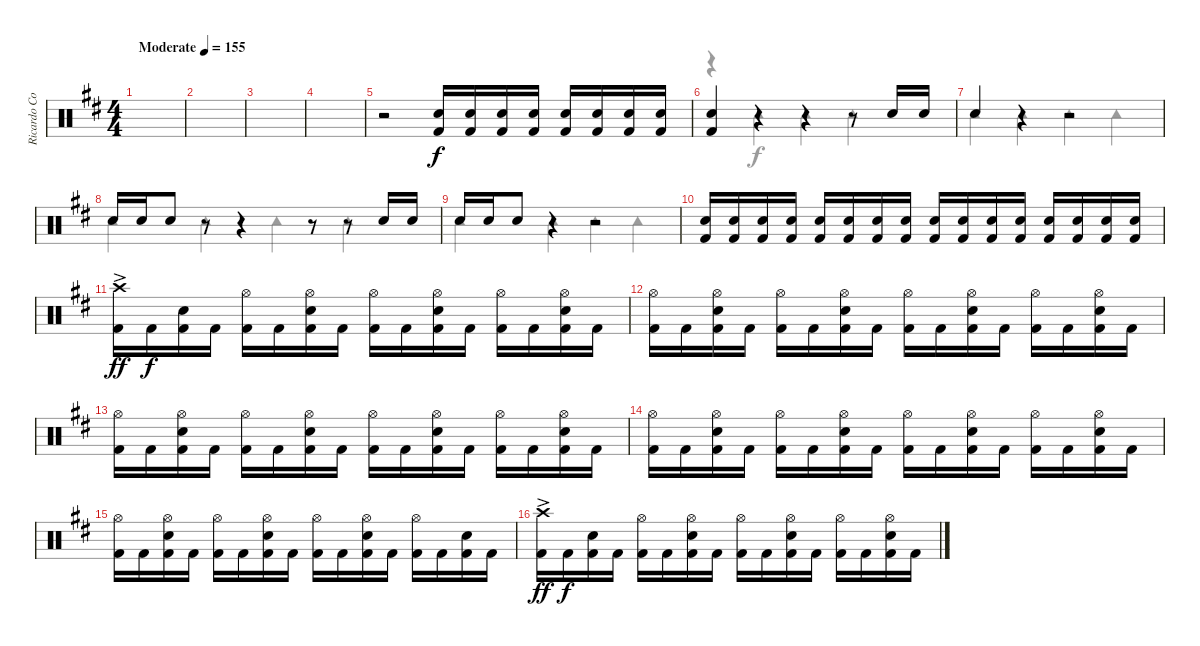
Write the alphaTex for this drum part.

\track ("Ricardo Confessori" "Ricardo Co") {instrument percussion}
\staff {score}
\articulation defaults
\voice
\ts (4 4)
\tempo (155 "Moderate")
\clef neutral
\ks d
|
|
|
|
r.2 ("Electric Snare (hit)" "Kick (hit) 2").16 ("Electric Snare (hit)" "Kick (hit) 2").16 ("Electric Snare (hit)" "Kick (hit) 2").16 ("Electric Snare (hit)" "Kick (hit) 2").16 ("Electric Snare (hit)" "Kick (hit) 2").16 ("Electric Snare (hit)" "Kick (hit) 2").16 ("Electric Snare (hit)" "Kick (hit) 2").16 ("Electric Snare (hit)" "Kick (hit) 2").16 |
("Electric Snare (hit)" "Kick (hit) 2").4 r.4 r.4 r.8 "Electric Snare (hit)".16 "Electric Snare (hit)".16 |
"Electric Snare (hit)".4 r.4 r.2 |
"Electric Snare (hit)".16 "Electric Snare (hit)".16 "Electric Snare (hit)".8 r.8 r.4 r.8 r.8 "Electric Snare (hit)".16 "Electric Snare (hit)".16 |
"Electric Snare (hit)".16 "Electric Snare (hit)".16 "Electric Snare (hit)".8 r.4 r.2 |
("Electric Snare (hit)" "Kick (hit) 2").16 ("Electric Snare (hit)" "Kick (hit) 2").16 ("Electric Snare (hit)" "Kick (hit) 2").16 ("Electric Snare (hit)" "Kick (hit) 2").16 ("Electric Snare (hit)" "Kick (hit) 2").16 ("Electric Snare (hit)" "Kick (hit) 2").16 ("Electric Snare (hit)" "Kick (hit) 2").16 ("Electric Snare (hit)" "Kick (hit) 2").16 ("Electric Snare (hit)" "Kick (hit) 2").16 ("Electric Snare (hit)" "Kick (hit) 2").16 ("Electric Snare (hit)" "Kick (hit) 2").16 ("Electric Snare (hit)" "Kick (hit) 2").16 ("Electric Snare (hit)" "Kick (hit) 2").16 ("Electric Snare (hit)" "Kick (hit) 2").16 ("Electric Snare (hit)" "Kick (hit) 2").16 ("Electric Snare (hit)" "Kick (hit) 2").16 |
("Crash high (hit)"{ac} "Kick (hit) 2"{ac}).16{dy ff} "Kick (hit) 2".16{dy f} ("Electric Snare (hit)" "Kick (hit) 2").16 "Kick (hit) 2".16 ("Kick (hit) 2" "Hi-Hat (open)").16 "Kick (hit) 2".16 ("Kick (hit) 2" "Hi-Hat (open)" "Electric Snare (hit)").16 "Kick (hit) 2".16 ("Kick (hit) 2" "Hi-Hat (open)").16 "Kick (hit) 2".16 ("Kick (hit) 2" "Hi-Hat (open)" "Electric Snare (hit)").16 "Kick (hit) 2".16 ("Kick (hit) 2" "Hi-Hat (open)").16 "Kick (hit) 2".16 ("Kick (hit) 2" "Hi-Hat (open)" "Electric Snare (hit)").16 "Kick (hit) 2".16 |
("Hi-Hat (open)" "Kick (hit) 2").16 "Kick (hit) 2".16 ("Electric Snare (hit)" "Kick (hit) 2" "Hi-Hat (open)").16 "Kick (hit) 2".16 ("Kick (hit) 2" "Hi-Hat (open)").16 "Kick (hit) 2".16 ("Kick (hit) 2" "Hi-Hat (open)" "Electric Snare (hit)").16 "Kick (hit) 2".16 ("Kick (hit) 2" "Hi-Hat (open)").16 "Kick (hit) 2".16 ("Kick (hit) 2" "Hi-Hat (open)" "Electric Snare (hit)").16 "Kick (hit) 2".16 ("Kick (hit) 2" "Hi-Hat (open)").16 "Kick (hit) 2".16 ("Kick (hit) 2" "Hi-Hat (open)" "Electric Snare (hit)").16 "Kick (hit) 2".16 |
("Hi-Hat (open)" "Kick (hit) 2").16 "Kick (hit) 2".16 ("Electric Snare (hit)" "Kick (hit) 2" "Hi-Hat (open)").16 "Kick (hit) 2".16 ("Kick (hit) 2" "Hi-Hat (open)").16 "Kick (hit) 2".16 ("Kick (hit) 2" "Hi-Hat (open)" "Electric Snare (hit)").16 "Kick (hit) 2".16 ("Kick (hit) 2" "Hi-Hat (open)").16 "Kick (hit) 2".16 ("Kick (hit) 2" "Hi-Hat (open)" "Electric Snare (hit)").16 "Kick (hit) 2".16 ("Kick (hit) 2" "Hi-Hat (open)").16 "Kick (hit) 2".16 ("Kick (hit) 2" "Hi-Hat (open)" "Electric Snare (hit)").16 "Kick (hit) 2".16 |
("Hi-Hat (open)" "Kick (hit) 2").16 "Kick (hit) 2".16 ("Electric Snare (hit)" "Kick (hit) 2" "Hi-Hat (open)").16 "Kick (hit) 2".16 ("Kick (hit) 2" "Hi-Hat (open)").16 "Kick (hit) 2".16 ("Kick (hit) 2" "Hi-Hat (open)" "Electric Snare (hit)").16 "Kick (hit) 2".16 ("Kick (hit) 2" "Hi-Hat (open)").16 "Kick (hit) 2".16 ("Kick (hit) 2" "Hi-Hat (open)" "Electric Snare (hit)").16 "Kick (hit) 2".16 ("Kick (hit) 2" "Hi-Hat (open)").16 "Kick (hit) 2".16 ("Kick (hit) 2" "Hi-Hat (open)" "Electric Snare (hit)").16 "Kick (hit) 2".16 |
("Hi-Hat (open)" "Kick (hit) 2").16 "Kick (hit) 2".16 ("Electric Snare (hit)" "Kick (hit) 2" "Hi-Hat (open)").16 "Kick (hit) 2".16 ("Kick (hit) 2" "Hi-Hat (open)").16 "Kick (hit) 2".16 ("Kick (hit) 2" "Hi-Hat (open)" "Electric Snare (hit)").16 "Kick (hit) 2".16 ("Kick (hit) 2" "Hi-Hat (open)").16 "Kick (hit) 2".16 ("Kick (hit) 2" "Hi-Hat (open)" "Electric Snare (hit)").16 "Kick (hit) 2".16 ("Kick (hit) 2" "Hi-Hat (open)").16 "Kick (hit) 2".16 ("Kick (hit) 2" "Electric Snare (hit)").16 "Kick (hit) 2".16 |
("Crash high (hit)"{ac} "Kick (hit) 2"{ac}).16{dy ff} "Kick (hit) 2".16{dy f} ("Electric Snare (hit)" "Kick (hit) 2").16 "Kick (hit) 2".16 ("Kick (hit) 2" "Hi-Hat (open)").16 "Kick (hit) 2".16 ("Kick (hit) 2" "Hi-Hat (open)" "Electric Snare (hit)").16 "Kick (hit) 2".16 ("Kick (hit) 2" "Hi-Hat (open)").16 "Kick (hit) 2".16 ("Kick (hit) 2" "Hi-Hat (open)" "Electric Snare (hit)").16 "Kick (hit) 2".16 ("Kick (hit) 2" "Hi-Hat (open)").16 "Kick (hit) 2".16 ("Kick (hit) 2" "Hi-Hat (open)" "Electric Snare (hit)").16 "Kick (hit) 2".16
\voice
\clef neutral
\ottava regular
\simile none
\ks d
|
|
|
|
|
r.4 "Tambourine (hit)".4 "Tambourine (hit)".4 "Tambourine (hit)".4 |
"Tambourine (hit)".4 "Tambourine (hit)".4 "Tambourine (hit)".4 "Tambourine (hit)".4 |
"Tambourine (hit)".4 "Tambourine (hit)".4 "Tambourine (hit)".4 "Tambourine (hit)".4 |
"Tambourine (hit)".4 "Tambourine (hit)".4 "Tambourine (hit)".4 "Tambourine (hit)".4 |
|
|
|
|
|
|
